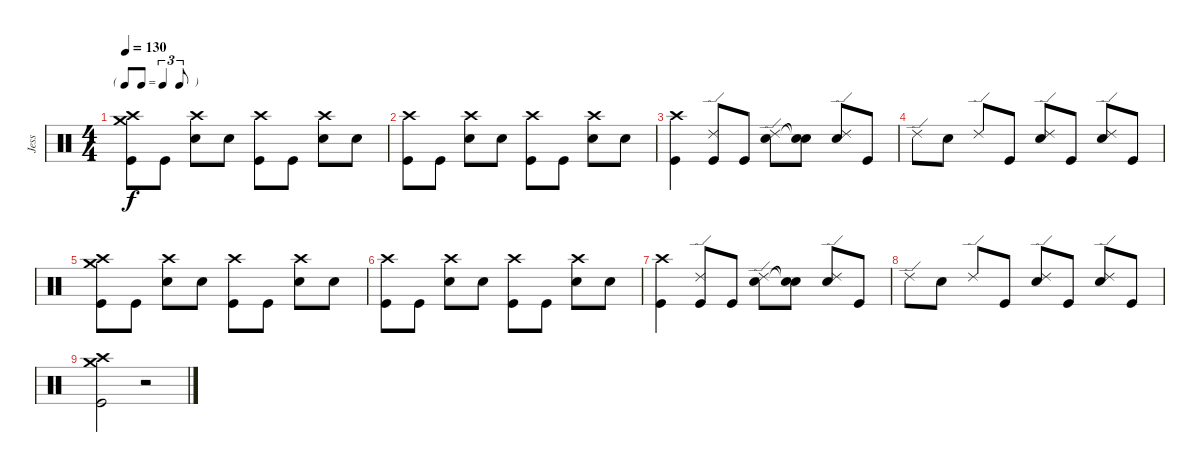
\track ("Jess" "Jess") {instrument percussion}
\staff {score}
\articulation defaults
\ts (4 4)
\tf triplet8th
\tempo 130
\clef neutral
\ks c
("Crash high (hit)" "Crash medium (hit)" "Kick (hit)").8{dy f} "Kick (hit)".8 ("Crash high (hit)" "Snare (hit) 2").8 "Snare (hit) 2".8 ("Crash high (hit)" "Kick (hit)").8 "Kick (hit)".8 ("Crash high (hit)" "Snare (hit) 2").8 "Snare (hit) 2".8 |
("Crash high (hit)" "Kick (hit)").8 "Kick (hit)".8 ("Crash high (hit)" "Snare (hit) 2").8 "Snare (hit) 2".8 ("Crash high (hit)" "Kick (hit)").8 "Kick (hit)".8 ("Crash high (hit)" "Snare (hit) 2").8 "Snare (hit) 2".8 |
("Crash high (hit)" "Kick (hit)").4 ("Ride (edge) 2" "Kick (hit)").8 "Kick (hit)".8 ("Ride (edge) 2" "Snare (hit) 2").8 ("Snare (hit)"{t} "Snare (hit)"{t}).8 ("Ride (edge) 2" "Snare (hit) 2").8 "Kick (hit)".8 |
"Ride (edge) 2".8 "Snare (hit) 2".8 "Ride (edge) 2".8 "Kick (hit)".8 ("Ride (edge) 2" "Snare (hit) 2").8 "Kick (hit)".8 ("Ride (edge) 2" "Snare (hit) 2").8 "Kick (hit)".8 |
("Crash high (hit)" "Crash medium (hit)" "Kick (hit)").8 "Kick (hit)".8 ("Crash high (hit)" "Snare (hit) 2").8 "Snare (hit) 2".8 ("Crash high (hit)" "Kick (hit)").8 "Kick (hit)".8 ("Crash high (hit)" "Snare (hit) 2").8 "Snare (hit) 2".8 |
("Crash high (hit)" "Kick (hit)").8 "Kick (hit)".8 ("Crash high (hit)" "Snare (hit) 2").8 "Snare (hit) 2".8 ("Crash high (hit)" "Kick (hit)").8 "Kick (hit)".8 ("Crash high (hit)" "Snare (hit) 2").8 "Snare (hit) 2".8 |
("Crash high (hit)" "Kick (hit)").4 ("Ride (edge) 2" "Kick (hit)").8 "Kick (hit)".8 ("Ride (edge) 2" "Snare (hit) 2").8 ("Snare (hit)"{t} "Snare (hit)"{t}).8 ("Ride (edge) 2" "Snare (hit) 2").8 "Kick (hit)".8 |
"Ride (edge) 2".8 "Snare (hit) 2".8 "Ride (edge) 2".8 "Kick (hit)".8 ("Ride (edge) 2" "Snare (hit) 2").8 "Kick (hit)".8 ("Ride (edge) 2" "Snare (hit) 2").8 "Kick (hit)".8 |
("Crash high (hit)" "Crash medium (hit)" "Kick (hit)").2 r.2
